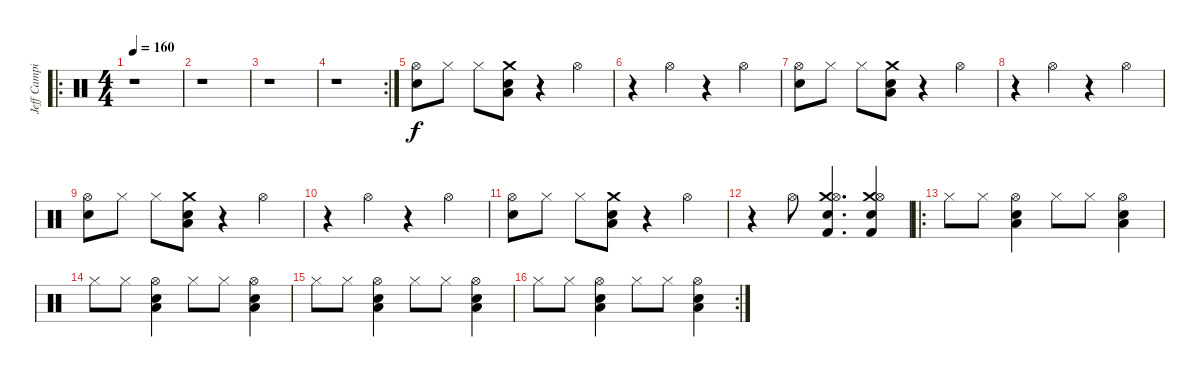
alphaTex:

\track ("Jeff Campitelli" "Jeff Campi") {instrument percussion}
\staff {score}
\articulation defaults
\ro
\ts (4 4)
\tempo 160
\clef neutral
\ks c
r.1{dy f} |
r.1 |
r.1 |
\rc 2
r.1 |
("Snare (hit) 2" "Hi-Hat (open)").8 "Hi-Hat (closed)".8 "Hi-Hat (closed)".8 ("Crash medium (hit)" "Snare (hit) 2" "Low Floor Tom (hit)").8 r.4 "Hi-Hat (open)".4 |
r.4 "Hi-Hat (open)".4 r.4 "Hi-Hat (open)".4 |
("Snare (hit) 2" "Hi-Hat (open)").8 "Hi-Hat (closed)".8 "Hi-Hat (closed)".8 ("Crash medium (hit)" "Snare (hit) 2" "Low Floor Tom (hit)").8 r.4 "Hi-Hat (open)".4 |
r.4 "Hi-Hat (open)".4 r.4 "Hi-Hat (open)".4 |
("Snare (hit) 2" "Hi-Hat (open)").8 "Hi-Hat (closed)".8 "Hi-Hat (closed)".8 ("Crash medium (hit)" "Snare (hit) 2" "Low Floor Tom (hit)").8 r.4 "Hi-Hat (open)".4 |
r.4 "Hi-Hat (open)".4 r.4 "Hi-Hat (open)".4 |
("Snare (hit) 2" "Hi-Hat (open)").8 "Hi-Hat (closed)".8 "Hi-Hat (closed)".8 ("Crash medium (hit)" "Snare (hit) 2" "Low Floor Tom (hit)").8 r.4 "Hi-Hat (open)".4 |
r.4 "Hi-Hat (open)".8 ("Crash medium (hit)" "Kick (hit) 2" "Hi-Hat (open)" "Snare (hit) 2").4{d} ("Crash medium (hit)" "Kick (hit) 2" "Hi-Hat (open)" "Snare (hit) 2").4 |
\ro "Hi-Hat (closed)".8 "Hi-Hat (closed)".8
("Low Floor Tom (hit)" "Snare (hit) 2" "Hi-Hat (open)").4 "Hi-Hat (closed)".8 "Hi-Hat (closed)".8 ("Low Floor Tom (hit)" "Snare (hit) 2" "Hi-Hat (open)").4 |
"Hi-Hat (closed)".8 "Hi-Hat (closed)".8 ("Low Floor Tom (hit)" "Snare (hit) 2" "Hi-Hat (open)").4 "Hi-Hat (closed)".8 "Hi-Hat (closed)".8 ("Low Floor Tom (hit)" "Snare (hit) 2" "Hi-Hat (open)").4 |
"Hi-Hat (closed)".8 "Hi-Hat (closed)".8 ("Low Floor Tom (hit)" "Snare (hit) 2" "Hi-Hat (open)").4 "Hi-Hat (closed)".8 "Hi-Hat (closed)".8 ("Low Floor Tom (hit)" "Snare (hit) 2" "Hi-Hat (open)").4 |
\rc 2 "Hi-Hat (closed)".8 "Hi-Hat (closed)".8
("Low Floor Tom (hit)" "Snare (hit) 2" "Hi-Hat (open)").4 "Hi-Hat (closed)".8 "Hi-Hat (closed)".8 ("Low Floor Tom (hit)" "Snare (hit) 2" "Hi-Hat (open)").4
